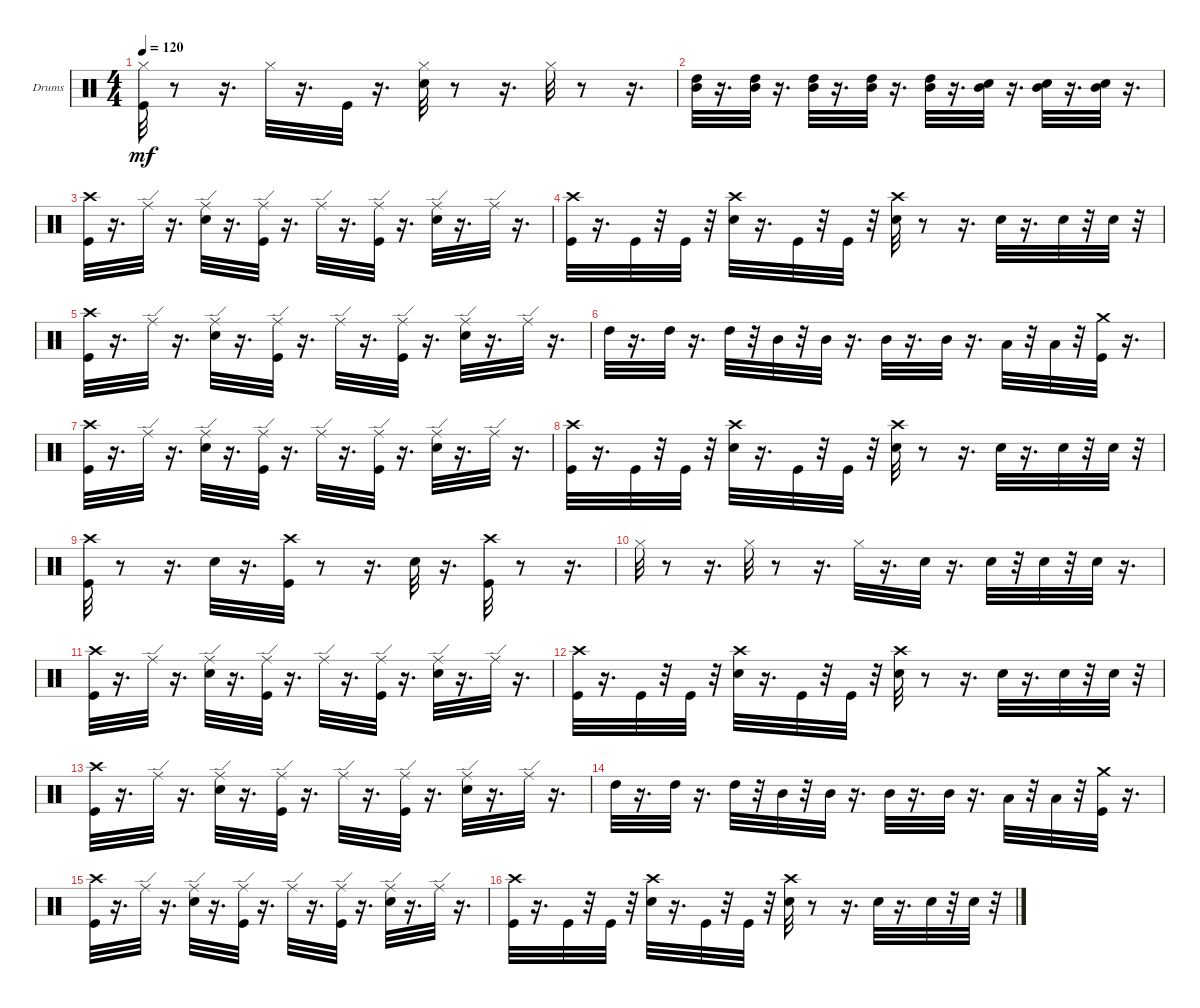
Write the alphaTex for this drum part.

\bracketExtendMode groupsimilarinstruments
\firstSystemTrackNameOrientation horizontal
\otherSystemsTrackNameOrientation horizontal
\track ("" "Drums") {instrument percussion}
\staff {score}
\articulation defaults
\ts (4 4)
\tempo 120
\clef neutral
\ks c
("Hi-Hat (closed)" "Kick (hit)").32{dy mf} r.8 r.16{d} "Hi-Hat (closed)".32 r.16{d} "Kick (hit)".32 r.16{d} ("Snare (hit) 2" "Hi-Hat (closed)").32 r.8 r.16{d} "Hi-Hat (closed)".32 r.8 r.16{d} |
("High Tom (hit)" "Mid Tom (hit)").32 r.16{d} ("High Tom (hit)" "Mid Tom (hit)").32 r.16{d} ("High Tom (hit)" "Mid Tom (hit)").32 r.16{d} ("High Tom (hit)" "Mid Tom (hit)").32 r.16{d} ("High Tom (hit)" "Mid Tom (hit)").32 r.16{d} ("Snare (hit) 2" "Mid Tom (hit)").32 r.16{d} ("Snare (hit) 2" "Mid Tom (hit)").32 r.16{d} ("Snare (hit) 2" "Mid Tom (hit)").32 r.16{d} |
("Crash high (hit)" "Kick (hit)").32 r.16{d} "Ride (edge)".32 r.16{d} ("Ride (edge)" "Snare (hit) 2").32 r.16{d} ("Kick (hit)" "Ride (edge)").32 r.16{d} "Ride (edge)".32 r.16{d} ("Kick (hit)" "Ride (edge)").32 r.16{d} ("Snare (hit) 2" "Ride (edge)").32 r.16{d} "Ride (edge)".32 r.16{d} |
("Crash high (hit)" "Kick (hit)").32 r.16{d} "Kick (hit)".32 r.32 "Kick (hit)".32 r.32 ("Crash high (hit)" "Snare (hit) 2").32 r.16{d} "Kick (hit)".32 r.32 "Kick (hit)".32 r.32 ("Crash high (hit)" "Snare (hit) 2").32 r.8 r.16{d} "Snare (hit) 2".32 r.16{d} "Snare (hit) 2".32 r.32 "Snare (hit) 2".32 r.32 |
("Crash high (hit)" "Kick (hit)").32 r.16{d} "Ride (edge)".32 r.16{d} ("Ride (edge)" "Snare (hit) 2").32 r.16{d} ("Kick (hit)" "Ride (edge)").32 r.16{d} "Ride (edge)".32 r.16{d} ("Kick (hit)" "Ride (edge)").32 r.16{d} ("Snare (hit) 2" "Ride (edge)").32 r.16{d} "Ride (edge)".32 r.16{d} |
"High Tom (hit)".32 r.16{d} "High Tom (hit)".32 r.16{d} "High Tom (hit)".32 r.32 "Mid Tom (hit)".32 r.32 "Mid Tom (hit)".32 r.16{d} "Mid Tom (hit)".32 r.16{d} "Mid Tom (hit)".32 r.16{d} "Low Tom (hit)".32 r.32 "Low Tom (hit)".32 r.32 ("Kick (hit)" "Crash medium (hit)").32 r.16{d} |
("Crash high (hit)" "Kick (hit)").32 r.16{d} "Ride (edge)".32 r.16{d} ("Ride (edge)" "Snare (hit) 2").32 r.16{d} ("Kick (hit)" "Ride (edge)").32 r.16{d} "Ride (edge)".32 r.16{d} ("Kick (hit)" "Ride (edge)").32 r.16{d} ("Snare (hit) 2" "Ride (edge)").32 r.16{d} "Ride (edge)".32 r.16{d} |
("Crash high (hit)" "Kick (hit)").32 r.16{d} "Kick (hit)".32 r.32 "Kick (hit)".32 r.32 ("Crash high (hit)" "Snare (hit) 2").32 r.16{d} "Kick (hit)".32 r.32 "Kick (hit)".32 r.32 ("Crash high (hit)" "Snare (hit) 2").32 r.8 r.16{d} "Snare (hit) 2".32 r.16{d} "Snare (hit) 2".32 r.32 "Snare (hit) 2".32 r.32 |
("Crash high (hit)" "Kick (hit)").32 r.8 r.16{d} "Snare (hit) 2".32 r.16{d} ("Crash high (hit)" "Kick (hit)").32 r.8 r.16{d} "Snare (hit) 2".32 r.16{d} ("Crash high (hit)" "Kick (hit)").32 r.8 r.16{d} |
"Hi-Hat (closed)".32 r.8 r.16{d} "Hi-Hat (closed)".32 r.8 r.16{d} "Hi-Hat (closed)".32 r.16{d} "Snare (hit) 2".32 r.16{d} "Snare (hit) 2".32 r.32 "Snare (hit) 2".32 r.32 "Snare (hit) 2".32 r.16{d} |
("Crash high (hit)" "Kick (hit)").32 r.16{d} "Ride (edge)".32 r.16{d} ("Ride (edge)" "Snare (hit) 2").32 r.16{d} ("Kick (hit)" "Ride (edge)").32 r.16{d} "Ride (edge)".32 r.16{d} ("Kick (hit)" "Ride (edge)").32 r.16{d} ("Snare (hit) 2" "Ride (edge)").32 r.16{d} "Ride (edge)".32 r.16{d} |
("Crash high (hit)" "Kick (hit)").32 r.16{d} "Kick (hit)".32 r.32 "Kick (hit)".32 r.32 ("Crash high (hit)" "Snare (hit) 2").32 r.16{d} "Kick (hit)".32 r.32 "Kick (hit)".32 r.32 ("Crash high (hit)" "Snare (hit) 2").32 r.8 r.16{d} "Snare (hit) 2".32 r.16{d} "Snare (hit) 2".32 r.32 "Snare (hit) 2".32 r.32 |
("Crash high (hit)" "Kick (hit)").32 r.16{d} "Ride (edge)".32 r.16{d} ("Ride (edge)" "Snare (hit) 2").32 r.16{d} ("Kick (hit)" "Ride (edge)").32 r.16{d} "Ride (edge)".32 r.16{d} ("Kick (hit)" "Ride (edge)").32 r.16{d} ("Snare (hit) 2" "Ride (edge)").32 r.16{d} "Ride (edge)".32 r.16{d} |
"High Tom (hit)".32 r.16{d} "High Tom (hit)".32 r.16{d} "High Tom (hit)".32 r.32 "Mid Tom (hit)".32 r.32 "Mid Tom (hit)".32 r.16{d} "Mid Tom (hit)".32 r.16{d} "Mid Tom (hit)".32 r.16{d} "Low Tom (hit)".32 r.32 "Low Tom (hit)".32 r.32 ("Kick (hit)" "Crash medium (hit)").32 r.16{d} |
("Crash high (hit)" "Kick (hit)").32 r.16{d} "Ride (edge)".32 r.16{d} ("Ride (edge)" "Snare (hit) 2").32 r.16{d} ("Kick (hit)" "Ride (edge)").32 r.16{d} "Ride (edge)".32 r.16{d} ("Kick (hit)" "Ride (edge)").32 r.16{d} ("Snare (hit) 2" "Ride (edge)").32 r.16{d} "Ride (edge)".32 r.16{d} |
("Crash high (hit)" "Kick (hit)").32 r.16{d} "Kick (hit)".32 r.32 "Kick (hit)".32 r.32 ("Crash high (hit)" "Snare (hit) 2").32 r.16{d} "Kick (hit)".32 r.32 "Kick (hit)".32 r.32 ("Crash high (hit)" "Snare (hit) 2").32 r.8 r.16{d} "Snare (hit) 2".32 r.16{d} "Snare (hit) 2".32 r.32 "Snare (hit) 2".32 r.32
